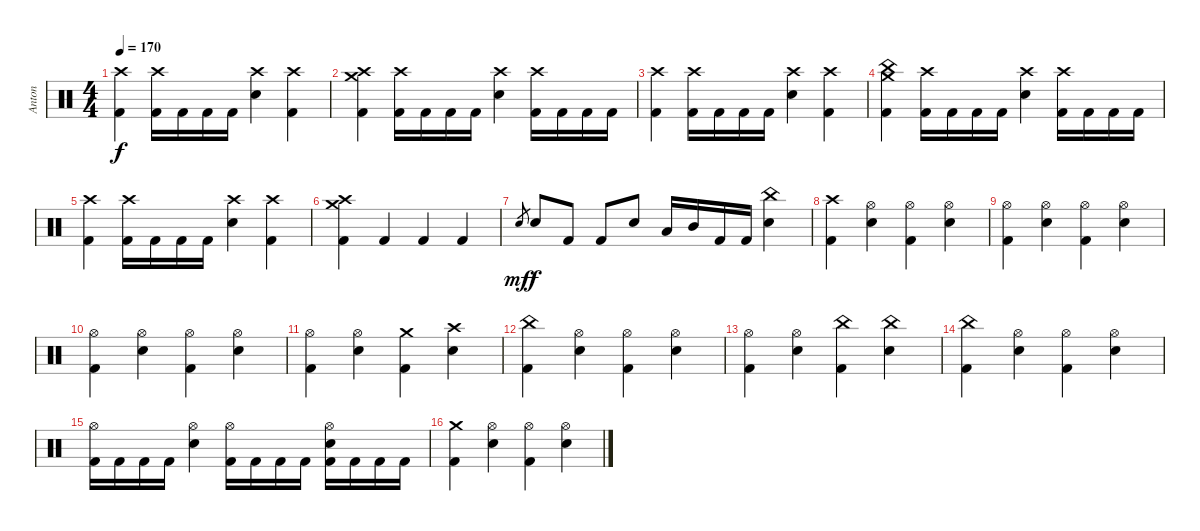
\track ("Anton" "Anton") {instrument percussion}
\staff
\articulation defaults
\ts (4 4)
\tempo 170
\clef neutral
\ks c
("Crash high (hit)" "Kick (hit) 2").4{dy f} ("Crash high (hit)" "Kick (hit) 2").16 "Kick (hit) 2".16 "Kick (hit) 2".16 "Kick (hit) 2".16 ("Crash high (hit)" "Electric Snare (hit)").4 ("Crash high (hit)" "Kick (hit) 2").4 |
("Crash high (hit)" "Crash medium (hit)" "Kick (hit) 2").4 ("Crash high (hit)" "Kick (hit) 2").16 "Kick (hit) 2".16 "Kick (hit) 2".16 "Kick (hit) 2".16 ("Crash high (hit)" "Electric Snare (hit)").4 ("Crash high (hit)" "Kick (hit) 2").16 "Kick (hit) 2".16 "Kick (hit) 2".16 "Kick (hit) 2".16 |
("Crash high (hit)" "Kick (hit) 2").4 ("Crash high (hit)" "Kick (hit) 2").16 "Kick (hit) 2".16 "Kick (hit) 2".16 "Kick (hit) 2".16 ("Crash high (hit)" "Electric Snare (hit)").4 ("Crash high (hit)" "Kick (hit) 2").4 |
("China (hit)" "Crash medium (hit)" "Kick (hit) 2").4 ("Crash high (hit)" "Kick (hit) 2").16 "Kick (hit) 2".16 "Kick (hit) 2".16 "Kick (hit) 2".16 ("Crash high (hit)" "Electric Snare (hit)").4 ("Crash high (hit)" "Kick (hit) 2").16 "Kick (hit) 2".16 "Kick (hit) 2".16 "Kick (hit) 2".16 |
("Crash high (hit)" "Kick (hit) 2").4 ("Crash high (hit)" "Kick (hit) 2").16 "Kick (hit) 2".16 "Kick (hit) 2".16 "Kick (hit) 2".16 ("Crash high (hit)" "Electric Snare (hit)").4 ("Crash high (hit)" "Kick (hit) 2").4 |
("Crash medium (hit)" "Crash high (hit)" "Kick (hit) 2").4 "Kick (hit) 2".4 "Kick (hit) 2".4 "Kick (hit) 2".4 |
"Electric Snare (hit)".8{gr dy mf} "Electric Snare (hit)".8{dy f} "Kick (hit) 2".8 "Kick (hit) 2".8 "Electric Snare (hit)".8 "Low Floor Tom (hit)".16 "Mid Tom (hit)".16 "Kick (hit) 2".16 "Kick (hit) 2".16 ("China (hit)" "Electric Snare (hit)").4 |
("Crash high (hit)" "Kick (hit) 2").4 ("Hi-Hat (open)" "Electric Snare (hit)").4 ("Hi-Hat (open)" "Kick (hit) 2").4 ("Hi-Hat (open)" "Electric Snare (hit)").4 |
("Hi-Hat (open)" "Kick (hit) 2").4 ("Hi-Hat (open)" "Electric Snare (hit)").4 ("Hi-Hat (open)" "Kick (hit) 2").4 ("Hi-Hat (open)" "Electric Snare (hit)").4 |
("Hi-Hat (open)" "Kick (hit) 2").4 ("Hi-Hat (open)" "Electric Snare (hit)").4 ("Hi-Hat (open)" "Kick (hit) 2").4 ("Hi-Hat (open)" "Electric Snare (hit)").4 |
("Hi-Hat (open)" "Kick (hit) 2").4 ("Hi-Hat (open)" "Electric Snare (hit)").4 ("Crash medium (hit)" "Kick (hit) 2").4 ("Crash high (hit)" "Electric Snare (hit)").4 |
("China (hit)" "Kick (hit) 2").4 ("Hi-Hat (open)" "Electric Snare (hit)").4 ("Hi-Hat (open)" "Kick (hit) 2").4 ("Hi-Hat (open)" "Electric Snare (hit)").4 |
("Hi-Hat (open)" "Kick (hit) 2").4 ("Hi-Hat (open)" "Electric Snare (hit)").4 ("China (hit)" "Kick (hit) 2").4 ("China (hit)" "Electric Snare (hit)").4 |
("China (hit)" "Kick (hit) 2").4 ("Hi-Hat (open)" "Electric Snare (hit)").4 ("Hi-Hat (open)" "Kick (hit) 2").4 ("Hi-Hat (open)" "Electric Snare (hit)").4 |
("Hi-Hat (open)" "Kick (hit) 2").16 "Kick (hit) 2".16 "Kick (hit) 2".16 "Kick (hit) 2".16 ("Hi-Hat (open)" "Electric Snare (hit)").4 ("Hi-Hat (open)" "Kick (hit) 2").16 "Kick (hit) 2".16 "Kick (hit) 2".16 "Kick (hit) 2".16 ("Hi-Hat (open)" "Electric Snare (hit)" "Kick (hit) 2").16 "Kick (hit) 2".16 "Kick (hit) 2".16 "Kick (hit) 2".16 |
("Crash medium (hit)" "Kick (hit) 2").4 ("Hi-Hat (open)" "Electric Snare (hit)").4 ("Hi-Hat (open)" "Kick (hit) 2").4 ("Hi-Hat (open)" "Electric Snare (hit)").4
